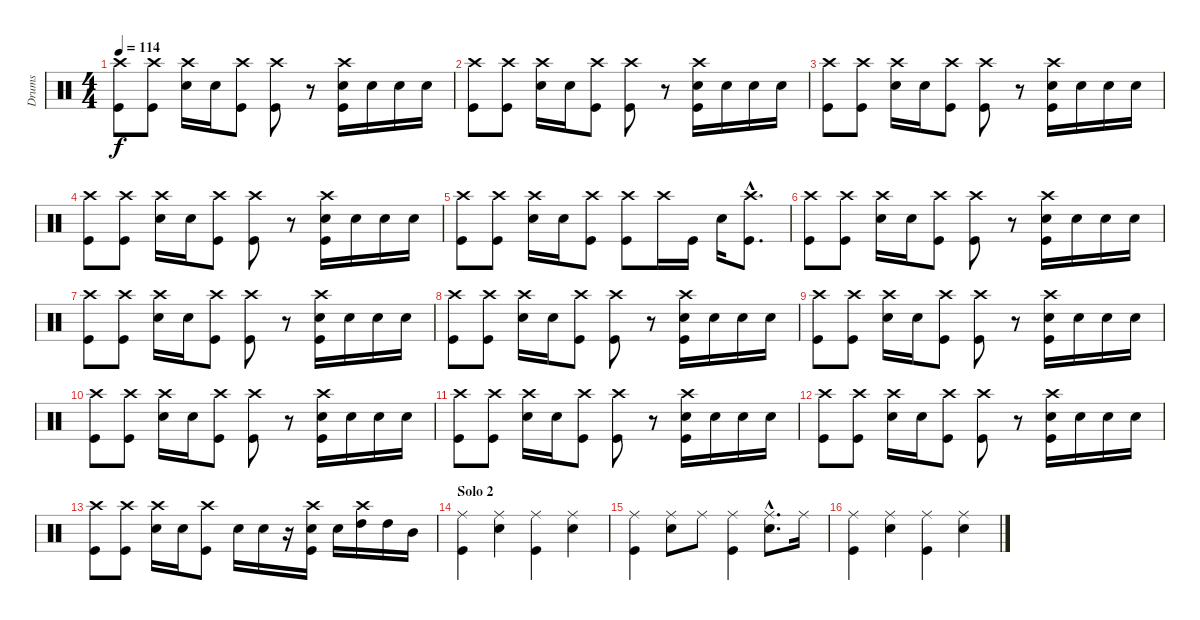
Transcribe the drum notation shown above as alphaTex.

\track ("Drums" "Drums") {instrument percussion}
\staff {score}
\articulation defaults
\ts (4 4)
\tempo 114
\clef neutral
\ks c
("Crash high (hit)" "Kick (hit)").8{dy f} ("Crash high (hit)" "Kick (hit)").8 ("Crash high (hit)" "Electric Snare (hit)").16 "Electric Snare (hit)".16 ("Crash high (hit)" "Kick (hit)").8 ("Crash high (hit)" "Kick (hit)").8 r.8 ("Crash high (hit)" "Electric Snare (hit)" "Kick (hit)").16 "Electric Snare (hit)".16 "Electric Snare (hit)".16 "Electric Snare (hit)".16 |
("Crash high (hit)" "Kick (hit)").8 ("Crash high (hit)" "Kick (hit)").8 ("Crash high (hit)" "Electric Snare (hit)").16 "Electric Snare (hit)".16 ("Crash high (hit)" "Kick (hit)").8 ("Crash high (hit)" "Kick (hit)").8 r.8 ("Crash high (hit)" "Electric Snare (hit)" "Kick (hit)").16 "Electric Snare (hit)".16 "Electric Snare (hit)".16 "Electric Snare (hit)".16 |
("Crash high (hit)" "Kick (hit)").8 ("Crash high (hit)" "Kick (hit)").8 ("Crash high (hit)" "Electric Snare (hit)").16 "Electric Snare (hit)".16 ("Crash high (hit)" "Kick (hit)").8 ("Crash high (hit)" "Kick (hit)").8 r.8 ("Crash high (hit)" "Electric Snare (hit)" "Kick (hit)").16 "Electric Snare (hit)".16 "Electric Snare (hit)".16 "Electric Snare (hit)".16 |
("Crash high (hit)" "Kick (hit)").8 ("Crash high (hit)" "Kick (hit)").8 ("Crash high (hit)" "Electric Snare (hit)").16 "Electric Snare (hit)".16 ("Crash high (hit)" "Kick (hit)").8 ("Crash high (hit)" "Kick (hit)").8 r.8 ("Crash high (hit)" "Electric Snare (hit)" "Kick (hit)").16 "Electric Snare (hit)".16 "Electric Snare (hit)".16 "Electric Snare (hit)".16 |
("Crash high (hit)" "Kick (hit)").8 ("Crash high (hit)" "Kick (hit)").8 ("Crash high (hit)" "Electric Snare (hit)").16 "Electric Snare (hit)".16 ("Crash high (hit)" "Kick (hit)").8 ("Crash high (hit)" "Kick (hit)").8 "Crash high (hit)".16 "Kick (hit)".16 "Electric Snare (hit)".16 ("Crash high (hit)"{hac} "Kick (hit)"{hac}).8{d} |
("Crash high (hit)" "Kick (hit)").8 ("Crash high (hit)" "Kick (hit)").8 ("Crash high (hit)" "Electric Snare (hit)").16 "Electric Snare (hit)".16 ("Crash high (hit)" "Kick (hit)").8 ("Crash high (hit)" "Kick (hit)").8 r.8 ("Crash high (hit)" "Electric Snare (hit)" "Kick (hit)").16 "Electric Snare (hit)".16 "Electric Snare (hit)".16 "Electric Snare (hit)".16 |
("Crash high (hit)" "Kick (hit)").8 ("Crash high (hit)" "Kick (hit)").8 ("Crash high (hit)" "Electric Snare (hit)").16 "Electric Snare (hit)".16 ("Crash high (hit)" "Kick (hit)").8 ("Crash high (hit)" "Kick (hit)").8 r.8 ("Crash high (hit)" "Electric Snare (hit)" "Kick (hit)").16 "Electric Snare (hit)".16 "Electric Snare (hit)".16 "Electric Snare (hit)".16 |
("Crash high (hit)" "Kick (hit)").8 ("Crash high (hit)" "Kick (hit)").8 ("Crash high (hit)" "Electric Snare (hit)").16 "Electric Snare (hit)".16 ("Crash high (hit)" "Kick (hit)").8 ("Crash high (hit)" "Kick (hit)").8 r.8 ("Crash high (hit)" "Electric Snare (hit)" "Kick (hit)").16 "Electric Snare (hit)".16 "Electric Snare (hit)".16 "Electric Snare (hit)".16 |
("Crash high (hit)" "Kick (hit)").8 ("Crash high (hit)" "Kick (hit)").8 ("Crash high (hit)" "Electric Snare (hit)").16 "Electric Snare (hit)".16 ("Crash high (hit)" "Kick (hit)").8 ("Crash high (hit)" "Kick (hit)").8 r.8 ("Crash high (hit)" "Electric Snare (hit)" "Kick (hit)").16 "Electric Snare (hit)".16 "Electric Snare (hit)".16 "Electric Snare (hit)".16 |
("Crash high (hit)" "Kick (hit)").8 ("Crash high (hit)" "Kick (hit)").8 ("Crash high (hit)" "Electric Snare (hit)").16 "Electric Snare (hit)".16 ("Crash high (hit)" "Kick (hit)").8 ("Crash high (hit)" "Kick (hit)").8 r.8 ("Crash high (hit)" "Electric Snare (hit)" "Kick (hit)").16 "Electric Snare (hit)".16 "Electric Snare (hit)".16 "Electric Snare (hit)".16 |
("Crash high (hit)" "Kick (hit)").8 ("Crash high (hit)" "Kick (hit)").8 ("Crash high (hit)" "Electric Snare (hit)").16 "Electric Snare (hit)".16 ("Crash high (hit)" "Kick (hit)").8 ("Crash high (hit)" "Kick (hit)").8 r.8 ("Crash high (hit)" "Electric Snare (hit)" "Kick (hit)").16 "Electric Snare (hit)".16 "Electric Snare (hit)".16 "Electric Snare (hit)".16 |
("Crash high (hit)" "Kick (hit)").8 ("Crash high (hit)" "Kick (hit)").8 ("Crash high (hit)" "Electric Snare (hit)").16 "Electric Snare (hit)".16 ("Crash high (hit)" "Kick (hit)").8 ("Crash high (hit)" "Kick (hit)").8 r.8 ("Crash high (hit)" "Electric Snare (hit)" "Kick (hit)").16 "Electric Snare (hit)".16 "Electric Snare (hit)".16 "Electric Snare (hit)".16 |
("Crash high (hit)" "Kick (hit)").8 ("Crash high (hit)" "Kick (hit)").8 ("Crash high (hit)" "Electric Snare (hit)").16 "Electric Snare (hit)".16 ("Crash high (hit)" "Kick (hit)").8 "Electric Snare (hit)".16 "Electric Snare (hit)".16 r.16 ("Crash high (hit)" "Electric Snare (hit)" "Kick (hit)").16 "Electric Snare (hit)".16 ("Crash high (hit)" "High Tom (hit)").16 "High Tom (hit)".16 "Mid Tom (hit)".16 |
\section ("" "Solo 2")
("Ride (middle)" "Kick (hit)").4 ("Ride (middle)" "Electric Snare (hit)").4 ("Ride (middle)" "Kick (hit)").4 ("Ride (middle)" "Electric Snare (hit)").4 |
("Ride (middle)" "Kick (hit)").4 ("Ride (middle)" "Electric Snare (hit)").8 "Ride (middle)".8 ("Ride (middle)" "Kick (hit)").4 ("Ride (middle)"{hac} "Electric Snare (hit)"{hac}).8{d} "Ride (middle)".16 |
("Ride (middle)" "Kick (hit)").4 ("Ride (middle)" "Electric Snare (hit)").4 ("Ride (middle)" "Kick (hit)").4 ("Ride (middle)" "Electric Snare (hit)").4
